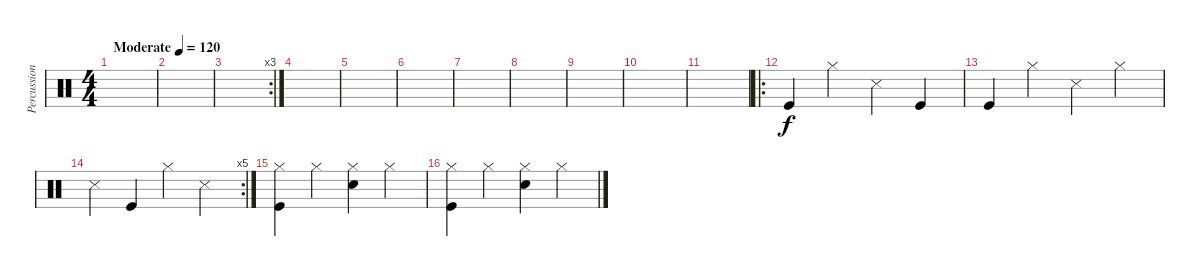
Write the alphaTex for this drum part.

\track ("Percussion" "Percussion") {instrument percussion}
\staff {score}
\articulation defaults
\ts (4 4)
\tempo (120 "Moderate")
\clef neutral
\ks c
|
|
\rc 3
|
|
|
|
|
|
|
|
|
\ro "Kick (hit)".4 "Hi-Hat (closed)".4 "Snare (side stick) 3".4 "Kick (hit)".4
|
"Kick (hit)".4 "Hi-Hat (closed)".4 "Snare (side stick) 3".4 "Hi-Hat (closed)".4 |
\rc 5 "Snare (side stick) 3".4 "Kick (hit)".4 "Hi-Hat (closed)".4 "Snare (side stick) 3".4
|
("Kick (hit)" "Hi-Hat (closed)").4 "Hi-Hat (closed)".4 ("Snare (hit) 2" "Hi-Hat (closed)").4 "Hi-Hat (closed)".4 |
("Kick (hit)" "Hi-Hat (closed)").4 "Hi-Hat (closed)".4 ("Snare (hit) 2" "Hi-Hat (closed)").4 "Hi-Hat (closed)".4
